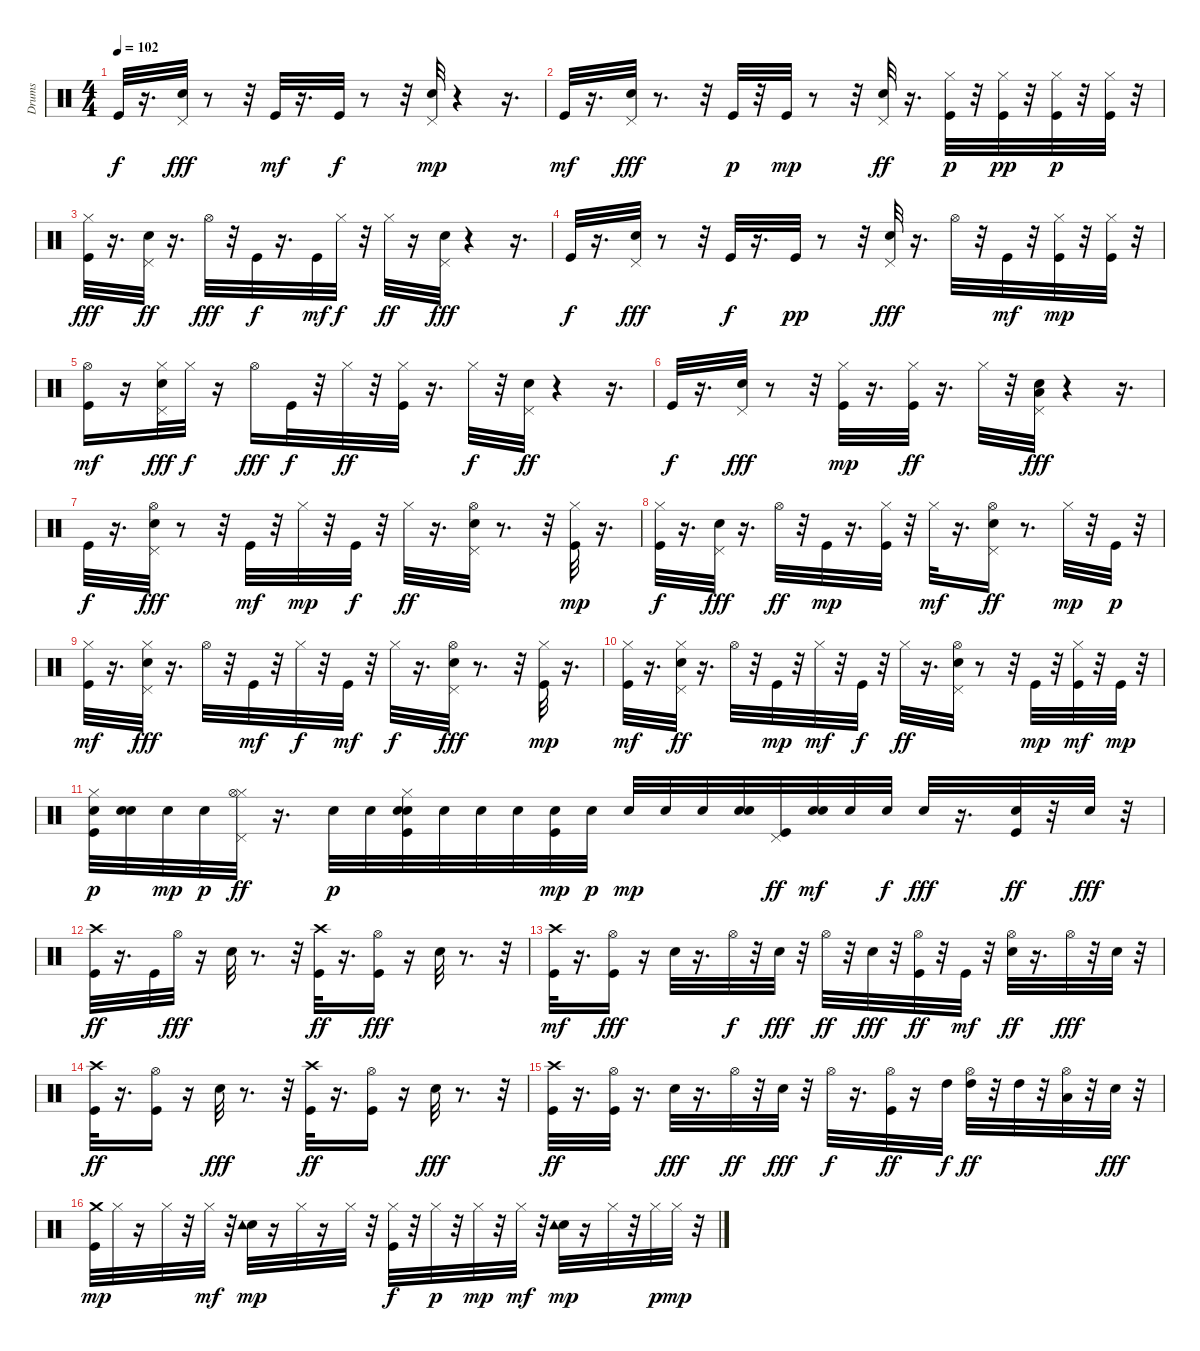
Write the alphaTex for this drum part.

\track ("Drums" "Drums") {instrument percussion}
\staff {score}
\articulation defaults
\ts (4 4)
\tempo 102
\clef neutral
\ks c "Kick (hit)".32{dy f}
r.16{d} ("Snare (hit) 2" "Pedal Hi-Hat (hit)").32{dy fff} r.8 r.32 "Kick (hit)".32{dy mf} r.16{d} "Kick (hit)".32{dy f} r.8 r.32 ("Snare (hit) 2" "Pedal Hi-Hat (hit)").32{dy mp} r.4 r.16{d} |
"Kick (hit)".32{dy mf} r.16{d} ("Snare (hit) 2" "Pedal Hi-Hat (hit)").32{dy fff} r.8{d} r.32 "Kick (hit)".32{dy p} r.32 "Kick (hit)".32{dy mp} r.8 r.32 ("Snare (hit) 2" "Pedal Hi-Hat (hit)").32{dy ff} r.16{d} ("Hi-Hat (closed)" "Kick (hit)").32{dy p} r.32 ("Hi-Hat (closed)" "Kick (hit)").32{dy pp} r.32 ("Hi-Hat (closed)" "Kick (hit)").32{dy p} r.32 ("Hi-Hat (closed)" "Kick (hit)").32 r.32 |
("Hi-Hat (closed)" "Kick (hit)").32{dy fff} r.16{d} ("Snare (hit) 2" "Pedal Hi-Hat (hit)").32{dy ff} r.16{d} "Hi-Hat (open)".32{dy fff} r.32 "Kick (hit)".32{dy f} r.16{d} "Kick (hit)".32{dy mf} "Hi-Hat (closed)".32{dy f} r.32 "Hi-Hat (closed)".32{dy ff} r.16 ("Snare (hit) 2" "Pedal Hi-Hat (hit)").32{dy fff} r.4 r.16{d} |
"Kick (hit)".32{dy f} r.16{d} ("Snare (hit) 2" "Pedal Hi-Hat (hit)").32{dy fff} r.8 r.32 "Kick (hit)".32{dy f} r.16{d} "Kick (hit)".32{dy pp} r.8 r.32 ("Snare (hit) 2" "Pedal Hi-Hat (hit)").32{dy fff} r.16{d} "Hi-Hat (open)".32 r.32 "Kick (hit)".32{dy mf} r.32 ("Hi-Hat (closed)" "Kick (hit)").32{dy mp} r.32 ("Hi-Hat (closed)" "Kick (hit)").32 r.32 |
("Hi-Hat (open)" "Kick (hit)").16{dy mf} r.16 ("Hi-Hat (closed)" "Snare (hit) 2" "Pedal Hi-Hat (hit)").32{dy fff} "Hi-Hat (closed)".32{dy f} r.16 "Hi-Hat (open)".16{dy fff} "Kick (hit)".32{dy f} r.32 "Hi-Hat (closed)".32{dy ff} r.32 ("Kick (hit)" "Hi-Hat (closed)").32 r.16{d} "Hi-Hat (closed)".32{dy f} r.32 ("Snare (hit) 2" "Pedal Hi-Hat (hit)").32{dy ff} r.4 r.16{d} |
"Kick (hit)".32{dy f} r.16{d} ("Snare (hit) 2" "Pedal Hi-Hat (hit)").32{dy fff} r.8 r.32 ("Hi-Hat (closed)" "Kick (hit)").32{dy mp} r.16{d} ("Kick (hit)" "Hi-Hat (closed)").32{dy ff} r.16{d} "Hi-Hat (closed)".32 r.32 ("Low Floor Tom (hit)" "Snare (hit) 2" "Pedal Hi-Hat (hit)").32{dy fff} r.4 r.16{d} |
"Kick (hit)".32{dy f} r.16{d} ("Snare (hit) 2" "Pedal Hi-Hat (hit)" "Hi-Hat (open)").32{dy fff} r.8 r.32 "Kick (hit)".32{dy mf} r.32 "Hi-Hat (closed)".32{dy mp} r.32 "Kick (hit)".32{dy f} r.32 "Hi-Hat (closed)".32{dy ff} r.16{d} ("Snare (hit) 2" "Pedal Hi-Hat (hit)" "Hi-Hat (open)").32 r.8{d} r.32 ("Hi-Hat (closed)" "Kick (hit)").32{dy mp} r.16{d} |
("Hi-Hat (closed)" "Kick (hit)").32{dy f} r.16{d} ("Snare (hit) 2" "Pedal Hi-Hat (hit)").32{dy fff} r.16{d} "Hi-Hat (open)".32{dy ff} r.32 "Kick (hit)".32{dy mp} r.16{d} ("Kick (hit)" "Hi-Hat (closed)").32 r.32 "Hi-Hat (closed)".32{dy mf} r.16{d} ("Snare (hit) 2" "Pedal Hi-Hat (hit)" "Hi-Hat (open)").16{dy ff} r.8{d} "Hi-Hat (closed)".32{dy mp} r.32 "Kick (hit)".32{dy p} r.32 |
("Kick (hit)" "Hi-Hat (closed)").32{dy mf} r.16{d} ("Snare (hit) 2" "Hi-Hat (closed)" "Pedal Hi-Hat (hit)").32{dy fff} r.16{d} "Hi-Hat (open)".32 r.32 "Kick (hit)".32{dy mf} r.32 "Hi-Hat (closed)".32{dy f} r.32 "Kick (hit)".32{dy mf} r.32 "Hi-Hat (closed)".32{dy f} r.16{d} ("Snare (hit) 2" "Pedal Hi-Hat (hit)" "Hi-Hat (open)").32{dy fff} r.8{d} r.32 ("Kick (hit)" "Hi-Hat (closed)").32{dy mp} r.16{d} |
("Kick (hit)" "Hi-Hat (closed)").32{dy mf} r.16{d} ("Snare (hit) 2" "Hi-Hat (closed)" "Pedal Hi-Hat (hit)").32{dy ff} r.16{d} "Hi-Hat (open)".32 r.32 "Kick (hit)".32{dy mp} r.32 "Hi-Hat (closed)".32{dy mf} r.32 "Kick (hit)".32{dy f} r.32 "Hi-Hat (closed)".32{dy ff} r.16{d} ("Snare (hit) 2" "Pedal Hi-Hat (hit)" "Hi-Hat (open)").32 r.8 r.32 "Kick (hit)".32{dy mp} r.32 ("Kick (hit)" "Hi-Hat (closed)").32{dy mf} r.32 "Kick (hit)".32{dy mp} r.32 |
("Kick (hit)" "Hi-Hat (closed)" "Snare (hit) 2").32{dy p} ("Snare (hit) 2" "Snare (hit) 2").32 "Snare (hit) 2".32{dy mp} "Snare (hit) 2".32{dy p} ("Hi-Hat (closed)" "Pedal Hi-Hat (hit)" "Hi-Hat (open)").32{dy ff} r.16{d} "Snare (hit) 2".32{dy p} "Snare (hit) 2".32 ("Snare (hit) 2" "Kick (hit)" "Hi-Hat (closed)" "Snare (hit) 2").32 "Snare (hit) 2".32 "Snare (hit) 2".32 "Snare (hit) 2".32 ("Kick (hit)" "Snare (hit) 2").32{dy mp} "Snare (hit) 2".32{dy p} "Snare (hit) 2".32{dy mp} "Snare (hit) 2".32 "Snare (hit) 2".32 ("Snare (hit) 2" "Snare (hit) 2").32 ("Kick (hit)" "Pedal Hi-Hat (hit)").32{dy ff} ("Snare (hit) 2" "Snare (hit) 2").32{dy mf} "Snare (hit) 2".32 "Electric Snare (hit)".32{dy f} "Electric Snare (hit)".32{dy fff} r.16{d} ("Electric Snare (hit)" "Kick (hit)").32{dy ff} r.32 "Electric Snare (hit)".32{dy fff} r.32 |
("Crash high (hit)" "Kick (hit)").32{dy ff} r.16{d} "Kick (hit)".32 "Hi-Hat (open)".32{dy fff} r.16 "Electric Snare (hit)".32 r.8{d} r.32 ("Kick (hit)" "Crash high (hit)").32{dy ff} r.16{d} ("Kick (hit)" "Hi-Hat (open)").16{dy fff} r.16 "Electric Snare (hit)".32 r.8{d} r.32 |
("Kick (hit)" "Crash high (hit)").32{dy mf} r.16{d} ("Kick (hit)" "Hi-Hat (open)").16{dy fff} r.16 "Electric Snare (hit)".32 r.16{d} "Hi-Hat (open)".32{dy f} r.32 "Electric Snare (hit)".32{dy fff} r.32 "Hi-Hat (open)".32{dy ff} r.32 "Electric Snare (hit)".32{dy fff} r.32 ("Kick (hit)" "Hi-Hat (open)").32{dy ff} r.32 "Kick (hit)".32{dy mf} r.32 ("Electric Snare (hit)" "Hi-Hat (open)").32{dy ff} r.16{d} "Hi-Hat (open)".32{dy fff} r.32 "Electric Snare (hit)".32 r.32 |
("Kick (hit)" "Crash high (hit)").32{dy ff} r.16{d} ("Hi-Hat (open)" "Kick (hit)").16 r.16 "Electric Snare (hit)".32{dy fff} r.8{d} r.32 ("Kick (hit)" "Crash high (hit)").32{dy ff} r.16{d} ("Kick (hit)" "Hi-Hat (open)").16 r.16 "Electric Snare (hit)".32{dy fff} r.8{d} r.32 |
("Kick (hit)" "Crash high (hit)").32{dy ff} r.16{d} ("Kick (hit)" "Hi-Hat (open)").32 r.16{d} "Electric Snare (hit)".32{dy fff} r.16{d} "Hi-Hat (open)".32{dy ff} r.32 "Electric Snare (hit)".32{dy fff} r.32 "Hi-Hat (open)".32{dy f} r.16{d} ("Hi-Hat (open)" "Kick (hit)").32{dy ff} r.16 "High Tom (hit)".32{dy f} ("Hi-Hat (open)" "High Tom (hit)").32{dy ff} r.32 "High Tom (hit)".32 r.32 ("Low Tom (hit)" "Hi-Hat (open)").32 r.32 "Electric Snare (hit)".32{dy fff} r.32 |
("Kick (hit)" "Crash medium (hit)").32{dy mp} "Hi-Hat (closed)".32 r.16 "Hi-Hat (closed)".32 r.32 "Hi-Hat (closed)".32{dy mf} r.32 ("Electric Snare (hit)" "Tambourine (hit)").32{dy mp} r.16 "Hi-Hat (closed)".32 r.16 "Hi-Hat (closed)".32 r.32 ("Kick (hit)" "Hi-Hat (closed)").32{dy f} r.32 "Hi-Hat (closed)".32{dy p} r.32 "Hi-Hat (closed)".32{dy mp} r.32 "Hi-Hat (closed)".32{dy mf} r.32 ("Electric Snare (hit)" "Tambourine (hit)").32{dy mp} r.16 "Hi-Hat (closed)".32 r.32 "Hi-Hat (closed)".32{dy p} "Hi-Hat (closed)".32{dy mp} r.32
